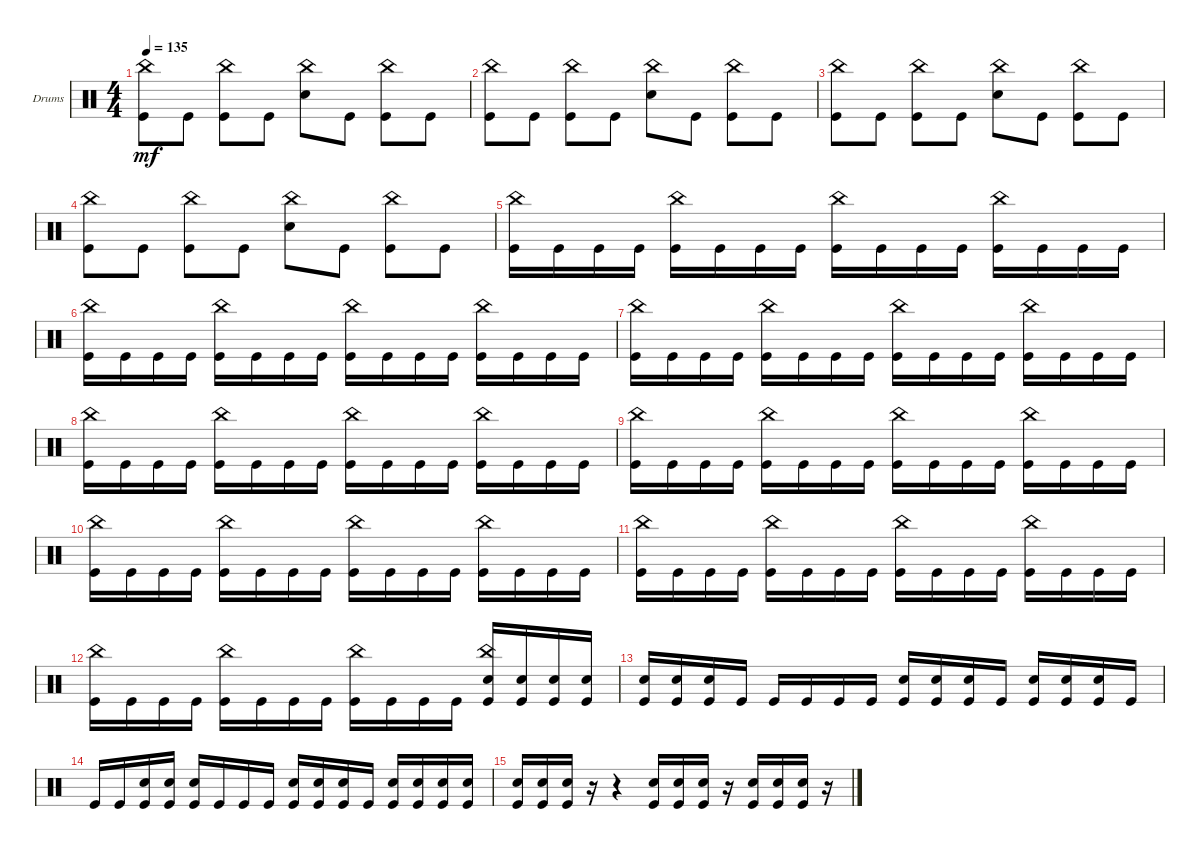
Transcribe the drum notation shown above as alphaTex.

\defaultSystemsLayout 4
\bracketExtendMode groupsimilarinstruments
\firstSystemTrackNameOrientation horizontal
\otherSystemsTrackNameOrientation horizontal
\track ("Drumkit" "Drums") {instrument percussion}
\staff {score}
\articulation defaults
\ts (4 4)
\tempo 135
\clef neutral
\ks c
("Kick (hit)" "China (hit)").8{dy mf} "Kick (hit)".8 ("Kick (hit)" "China (hit)").8 "Kick (hit)".8 ("China (hit)" "Snare (hit) 2").8 "Kick (hit)".8 ("Kick (hit)" "China (hit)").8 "Kick (hit)".8 |
("Kick (hit)" "China (hit)").8 "Kick (hit)".8 ("Kick (hit)" "China (hit)").8 "Kick (hit)".8 ("China (hit)" "Snare (hit) 2").8 "Kick (hit)".8 ("Kick (hit)" "China (hit)").8 "Kick (hit)".8 |
("Kick (hit)" "China (hit)").8 "Kick (hit)".8 ("Kick (hit)" "China (hit)").8 "Kick (hit)".8 ("China (hit)" "Snare (hit) 2").8 "Kick (hit)".8 ("Kick (hit)" "China (hit)").8 "Kick (hit)".8 |
("Kick (hit)" "China (hit)").8 "Kick (hit)".8 ("Kick (hit)" "China (hit)").8 "Kick (hit)".8 ("China (hit)" "Snare (hit) 2").8 "Kick (hit)".8 ("Kick (hit)" "China (hit)").8 "Kick (hit)".8 |
("Kick (hit)" "China (hit)").16 "Kick (hit)".16 "Kick (hit)".16 "Kick (hit)".16 ("Kick (hit)" "China (hit)").16 "Kick (hit)".16 "Kick (hit)".16 "Kick (hit)".16 ("Kick (hit)" "China (hit)").16 "Kick (hit)".16 "Kick (hit)".16 "Kick (hit)".16 ("Kick (hit)" "China (hit)").16 "Kick (hit)".16 "Kick (hit)".16 "Kick (hit)".16 |
("Kick (hit)" "China (hit)").16 "Kick (hit)".16 "Kick (hit)".16 "Kick (hit)".16 ("Kick (hit)" "China (hit)").16 "Kick (hit)".16 "Kick (hit)".16 "Kick (hit)".16 ("Kick (hit)" "China (hit)").16 "Kick (hit)".16 "Kick (hit)".16 "Kick (hit)".16 ("Kick (hit)" "China (hit)").16 "Kick (hit)".16 "Kick (hit)".16 "Kick (hit)".16 |
("Kick (hit)" "China (hit)").16 "Kick (hit)".16 "Kick (hit)".16 "Kick (hit)".16 ("Kick (hit)" "China (hit)").16 "Kick (hit)".16 "Kick (hit)".16 "Kick (hit)".16 ("Kick (hit)" "China (hit)").16 "Kick (hit)".16 "Kick (hit)".16 "Kick (hit)".16 ("Kick (hit)" "China (hit)").16 "Kick (hit)".16 "Kick (hit)".16 "Kick (hit)".16 |
("Kick (hit)" "China (hit)").16 "Kick (hit)".16 "Kick (hit)".16 "Kick (hit)".16 ("Kick (hit)" "China (hit)").16 "Kick (hit)".16 "Kick (hit)".16 "Kick (hit)".16 ("Kick (hit)" "China (hit)").16 "Kick (hit)".16 "Kick (hit)".16 "Kick (hit)".16 ("Kick (hit)" "China (hit)").16 "Kick (hit)".16 "Kick (hit)".16 "Kick (hit)".16 |
("Kick (hit)" "China (hit)").16 "Kick (hit)".16 "Kick (hit)".16 "Kick (hit)".16 ("Kick (hit)" "China (hit)").16 "Kick (hit)".16 "Kick (hit)".16 "Kick (hit)".16 ("Kick (hit)" "China (hit)").16 "Kick (hit)".16 "Kick (hit)".16 "Kick (hit)".16 ("Kick (hit)" "China (hit)").16 "Kick (hit)".16 "Kick (hit)".16 "Kick (hit)".16 |
("Kick (hit)" "China (hit)").16 "Kick (hit)".16 "Kick (hit)".16 "Kick (hit)".16 ("Kick (hit)" "China (hit)").16 "Kick (hit)".16 "Kick (hit)".16 "Kick (hit)".16 ("Kick (hit)" "China (hit)").16 "Kick (hit)".16 "Kick (hit)".16 "Kick (hit)".16 ("Kick (hit)" "China (hit)").16 "Kick (hit)".16 "Kick (hit)".16 "Kick (hit)".16 |
("Kick (hit)" "China (hit)").16 "Kick (hit)".16 "Kick (hit)".16 "Kick (hit)".16 ("Kick (hit)" "China (hit)").16 "Kick (hit)".16 "Kick (hit)".16 "Kick (hit)".16 ("Kick (hit)" "China (hit)").16 "Kick (hit)".16 "Kick (hit)".16 "Kick (hit)".16 ("Kick (hit)" "China (hit)").16 "Kick (hit)".16 "Kick (hit)".16 "Kick (hit)".16 |
("Kick (hit)" "China (hit)").16 "Kick (hit)".16 "Kick (hit)".16 "Kick (hit)".16 ("Kick (hit)" "China (hit)").16 "Kick (hit)".16 "Kick (hit)".16 "Kick (hit)".16 ("Kick (hit)" "China (hit)").16 "Kick (hit)".16 "Kick (hit)".16 "Kick (hit)".16 ("China (hit)" "Snare (hit) 2" "Kick (hit)").16 ("Snare (hit) 2" "Kick (hit)").16 ("Snare (hit) 2" "Kick (hit)").16 ("Snare (hit) 2" "Kick (hit)").16 |
("Snare (hit) 2" "Kick (hit)").16 ("Snare (hit) 2" "Kick (hit)").16 ("Snare (hit) 2" "Kick (hit)").16 "Kick (hit)".16 "Kick (hit)".16 "Kick (hit)".16 "Kick (hit)".16 "Kick (hit)".16 ("Snare (hit) 2" "Kick (hit)").16 ("Snare (hit) 2" "Kick (hit)").16 ("Snare (hit) 2" "Kick (hit)").16 "Kick (hit)".16 ("Snare (hit) 2" "Kick (hit)").16 ("Snare (hit) 2" "Kick (hit)").16 ("Snare (hit) 2" "Kick (hit)").16 "Kick (hit)".16 |
"Kick (hit)".16 "Kick (hit)".16 ("Snare (hit) 2" "Kick (hit)").16 ("Snare (hit) 2" "Kick (hit)").16 ("Snare (hit) 2" "Kick (hit)").16 "Kick (hit)".16 "Kick (hit)".16 "Kick (hit)".16 ("Snare (hit) 2" "Kick (hit)").16 ("Snare (hit) 2" "Kick (hit)").16 ("Snare (hit) 2" "Kick (hit)").16 "Kick (hit)".16 ("Snare (hit) 2" "Kick (hit)").16 ("Snare (hit) 2" "Kick (hit)").16 ("Snare (hit) 2" "Kick (hit)").16 ("Snare (hit) 2" "Kick (hit)").16 |
("Snare (hit) 2" "Kick (hit)").16 ("Snare (hit) 2" "Kick (hit)").16 ("Snare (hit) 2" "Kick (hit)").16 r.16 r.4 ("Snare (hit) 2" "Kick (hit)").16 ("Snare (hit) 2" "Kick (hit)").16 ("Snare (hit) 2" "Kick (hit)").16 r.16 ("Snare (hit) 2" "Kick (hit)").16 ("Snare (hit) 2" "Kick (hit)").16 ("Snare (hit) 2" "Kick (hit)").16 r.16
